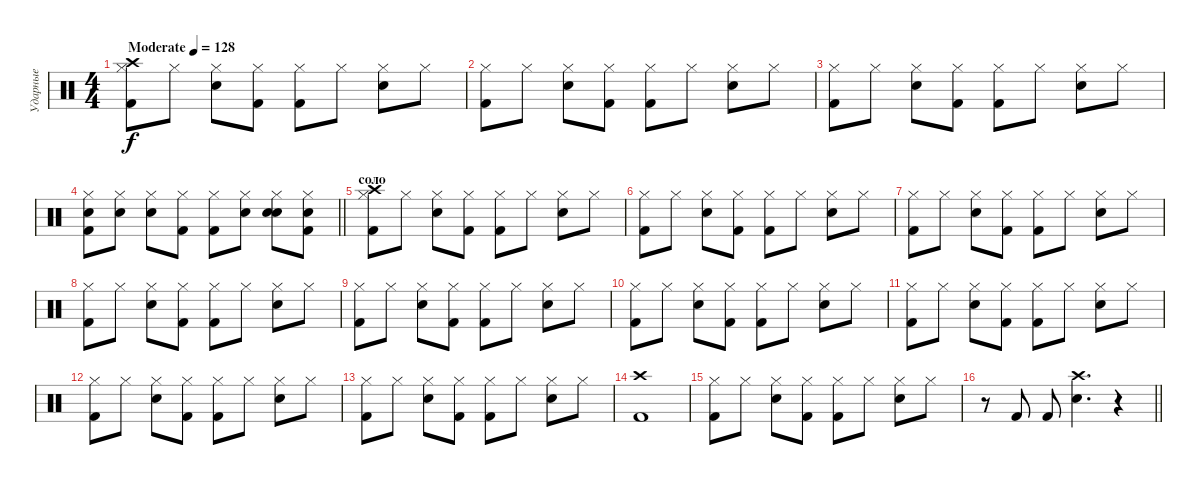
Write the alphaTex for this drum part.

\track ("Ударные" "Ударные") {instrument percussion}
\staff
\articulation defaults
\ts (4 4)
\tempo (128 "Moderate")
\clef neutral
\ks c
("Crash high (hit)" "Hi-Hat (closed)" "Kick (hit) 2").8{dy f} "Hi-Hat (closed)".8 ("Hi-Hat (closed)" "Snare (hit) 2").8 ("Hi-Hat (closed)" "Kick (hit) 2").8 ("Hi-Hat (closed)" "Kick (hit) 2").8 "Hi-Hat (closed)".8 ("Hi-Hat (closed)" "Snare (hit) 2").8 "Hi-Hat (closed)".8 |
("Hi-Hat (closed)" "Kick (hit) 2").8 "Hi-Hat (closed)".8 ("Hi-Hat (closed)" "Snare (hit) 2").8 ("Hi-Hat (closed)" "Kick (hit) 2").8 ("Hi-Hat (closed)" "Kick (hit) 2").8 "Hi-Hat (closed)".8 ("Hi-Hat (closed)" "Snare (hit) 2").8 "Hi-Hat (closed)".8 |
("Hi-Hat (closed)" "Kick (hit) 2").8 "Hi-Hat (closed)".8 ("Hi-Hat (closed)" "Snare (hit) 2").8 ("Hi-Hat (closed)" "Kick (hit) 2").8 ("Hi-Hat (closed)" "Kick (hit) 2").8 "Hi-Hat (closed)".8 ("Hi-Hat (closed)" "Snare (hit) 2").8 "Hi-Hat (closed)".8 |
\barLineRight lightlight
("Electric Snare (hit)" "Hi-Hat (closed)" "Kick (hit) 2").8 ("Electric Snare (hit)" "Hi-Hat (closed)").8 ("Hi-Hat (closed)" "Snare (hit) 2").8 ("Hi-Hat (closed)" "Kick (hit) 2").8 ("Hi-Hat (closed)" "Kick (hit) 2").8 ("Electric Snare (hit)" "Hi-Hat (closed)").8 ("Electric Snare (hit)" "Hi-Hat (closed)" "Snare (hit) 2").8 ("Electric Snare (hit)" "Hi-Hat (closed)" "Kick (hit) 2").8 |
\section ("" "соло")
("Crash high (hit)" "Hi-Hat (closed)" "Kick (hit) 2").8 "Hi-Hat (closed)".8 ("Hi-Hat (closed)" "Snare (hit) 2").8 ("Hi-Hat (closed)" "Kick (hit) 2").8 ("Hi-Hat (closed)" "Kick (hit) 2").8 "Hi-Hat (closed)".8 ("Hi-Hat (closed)" "Snare (hit) 2").8 "Hi-Hat (closed)".8 |
("Hi-Hat (closed)" "Kick (hit) 2").8 "Hi-Hat (closed)".8 ("Hi-Hat (closed)" "Snare (hit) 2").8 ("Hi-Hat (closed)" "Kick (hit) 2").8 ("Hi-Hat (closed)" "Kick (hit) 2").8 "Hi-Hat (closed)".8 ("Hi-Hat (closed)" "Snare (hit) 2").8 "Hi-Hat (closed)".8 |
("Hi-Hat (closed)" "Kick (hit) 2").8 "Hi-Hat (closed)".8 ("Hi-Hat (closed)" "Snare (hit) 2").8 ("Hi-Hat (closed)" "Kick (hit) 2").8 ("Hi-Hat (closed)" "Kick (hit) 2").8 "Hi-Hat (closed)".8 ("Hi-Hat (closed)" "Snare (hit) 2").8 "Hi-Hat (closed)".8 |
("Hi-Hat (closed)" "Kick (hit) 2").8 "Hi-Hat (closed)".8 ("Hi-Hat (closed)" "Snare (hit) 2").8 ("Hi-Hat (closed)" "Kick (hit) 2").8 ("Hi-Hat (closed)" "Kick (hit) 2").8 "Hi-Hat (closed)".8 ("Hi-Hat (closed)" "Snare (hit) 2").8 "Hi-Hat (closed)".8 |
("Hi-Hat (closed)" "Kick (hit) 2").8 "Hi-Hat (closed)".8 ("Hi-Hat (closed)" "Snare (hit) 2").8 ("Hi-Hat (closed)" "Kick (hit) 2").8 ("Hi-Hat (closed)" "Kick (hit) 2").8 "Hi-Hat (closed)".8 ("Hi-Hat (closed)" "Snare (hit) 2").8 "Hi-Hat (closed)".8 |
("Hi-Hat (closed)" "Kick (hit) 2").8 "Hi-Hat (closed)".8 ("Hi-Hat (closed)" "Snare (hit) 2").8 ("Hi-Hat (closed)" "Kick (hit) 2").8 ("Hi-Hat (closed)" "Kick (hit) 2").8 "Hi-Hat (closed)".8 ("Hi-Hat (closed)" "Snare (hit) 2").8 "Hi-Hat (closed)".8 |
("Hi-Hat (closed)" "Kick (hit) 2").8 "Hi-Hat (closed)".8 ("Hi-Hat (closed)" "Snare (hit) 2").8 ("Hi-Hat (closed)" "Kick (hit) 2").8 ("Hi-Hat (closed)" "Kick (hit) 2").8 "Hi-Hat (closed)".8 ("Hi-Hat (closed)" "Snare (hit) 2").8 "Hi-Hat (closed)".8 |
("Hi-Hat (closed)" "Kick (hit) 2").8 "Hi-Hat (closed)".8 ("Hi-Hat (closed)" "Snare (hit) 2").8 ("Hi-Hat (closed)" "Kick (hit) 2").8 ("Hi-Hat (closed)" "Kick (hit) 2").8 "Hi-Hat (closed)".8 ("Hi-Hat (closed)" "Snare (hit) 2").8 "Hi-Hat (closed)".8 |
("Hi-Hat (closed)" "Kick (hit) 2").8 "Hi-Hat (closed)".8 ("Hi-Hat (closed)" "Snare (hit) 2").8 ("Hi-Hat (closed)" "Kick (hit) 2").8 ("Hi-Hat (closed)" "Kick (hit) 2").8 "Hi-Hat (closed)".8 ("Hi-Hat (closed)" "Snare (hit) 2").8 "Hi-Hat (closed)".8 |
("Crash high (hit)" "Kick (hit) 2").1 |
("Hi-Hat (closed)" "Kick (hit) 2").8 "Hi-Hat (closed)".8 ("Hi-Hat (closed)" "Snare (hit) 2").8 ("Hi-Hat (closed)" "Kick (hit) 2").8 ("Hi-Hat (closed)" "Kick (hit) 2").8 "Hi-Hat (closed)".8 ("Hi-Hat (closed)" "Snare (hit) 2").8 "Hi-Hat (closed)".8 |
\barLineRight lightlight
r.8 "Kick (hit) 2".8 "Kick (hit) 2".8 ("Crash high (hit)" "Snare (hit) 2").4{d} r.4
